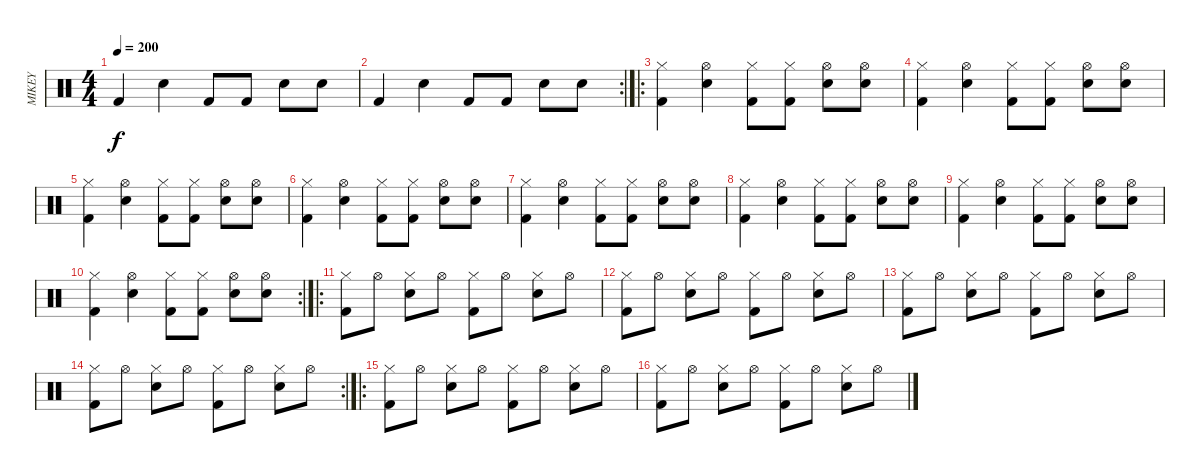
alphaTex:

\track ("MIKEY" "MIKEY") {instrument percussion}
\staff {score}
\articulation defaults
\ts (4 4)
\tempo 200
\clef neutral
\ks c "Kick (hit) 2".4{dy f} "Snare (hit) 2".4 "Kick (hit) 2".8 "Kick (hit) 2".8 "Snare (hit) 2".8 "Snare (hit) 2".8
|
\rc 2 "Kick (hit) 2".4 "Snare (hit) 2".4 "Kick (hit) 2".8 "Kick (hit) 2".8 "Snare (hit) 2".8 "Snare (hit) 2".8
|
\ro
("Hi-Hat (closed)" "Kick (hit) 2").4 ("Hi-Hat (open)" "Snare (hit) 2").4 ("Hi-Hat (closed)" "Kick (hit) 2").8 ("Hi-Hat (closed)" "Kick (hit) 2").8 ("Hi-Hat (open)" "Snare (hit) 2").8 ("Hi-Hat (open)" "Snare (hit) 2").8 |
("Hi-Hat (closed)" "Kick (hit) 2").4 ("Hi-Hat (open)" "Snare (hit) 2").4 ("Hi-Hat (closed)" "Kick (hit) 2").8 ("Hi-Hat (closed)" "Kick (hit) 2").8 ("Hi-Hat (open)" "Snare (hit) 2").8 ("Hi-Hat (open)" "Snare (hit) 2").8 |
("Hi-Hat (closed)" "Kick (hit) 2").4 ("Hi-Hat (open)" "Snare (hit) 2").4 ("Hi-Hat (closed)" "Kick (hit) 2").8 ("Hi-Hat (closed)" "Kick (hit) 2").8 ("Hi-Hat (open)" "Snare (hit) 2").8 ("Hi-Hat (open)" "Snare (hit) 2").8 |
("Hi-Hat (closed)" "Kick (hit) 2").4 ("Hi-Hat (open)" "Snare (hit) 2").4 ("Hi-Hat (closed)" "Kick (hit) 2").8 ("Hi-Hat (closed)" "Kick (hit) 2").8 ("Hi-Hat (open)" "Snare (hit) 2").8 ("Hi-Hat (open)" "Snare (hit) 2").8 |
("Hi-Hat (closed)" "Kick (hit) 2").4 ("Hi-Hat (open)" "Snare (hit) 2").4 ("Hi-Hat (closed)" "Kick (hit) 2").8 ("Hi-Hat (closed)" "Kick (hit) 2").8 ("Hi-Hat (open)" "Snare (hit) 2").8 ("Hi-Hat (open)" "Snare (hit) 2").8 |
("Hi-Hat (closed)" "Kick (hit) 2").4 ("Hi-Hat (open)" "Snare (hit) 2").4 ("Hi-Hat (closed)" "Kick (hit) 2").8 ("Hi-Hat (closed)" "Kick (hit) 2").8 ("Hi-Hat (open)" "Snare (hit) 2").8 ("Hi-Hat (open)" "Snare (hit) 2").8 |
("Hi-Hat (closed)" "Kick (hit) 2").4 ("Hi-Hat (open)" "Snare (hit) 2").4 ("Hi-Hat (closed)" "Kick (hit) 2").8 ("Hi-Hat (closed)" "Kick (hit) 2").8 ("Hi-Hat (open)" "Snare (hit) 2").8 ("Hi-Hat (open)" "Snare (hit) 2").8 |
\rc 2
("Hi-Hat (closed)" "Kick (hit) 2").4 ("Hi-Hat (open)" "Snare (hit) 2").4 ("Hi-Hat (closed)" "Kick (hit) 2").8 ("Hi-Hat (closed)" "Kick (hit) 2").8 ("Hi-Hat (open)" "Snare (hit) 2").8 ("Hi-Hat (open)" "Snare (hit) 2").8 |
\ro
("Hi-Hat (closed)" "Kick (hit) 2").8 "Hi-Hat (open)".8 ("Hi-Hat (closed)" "Snare (hit) 2").8 "Hi-Hat (open)".8 ("Hi-Hat (closed)" "Kick (hit) 2").8 "Hi-Hat (open)".8 ("Hi-Hat (closed)" "Snare (hit) 2").8 "Hi-Hat (open)".8 |
("Hi-Hat (closed)" "Kick (hit) 2").8 "Hi-Hat (open)".8 ("Hi-Hat (closed)" "Snare (hit) 2").8 "Hi-Hat (open)".8 ("Hi-Hat (closed)" "Kick (hit) 2").8 "Hi-Hat (open)".8 ("Hi-Hat (closed)" "Snare (hit) 2").8 "Hi-Hat (open)".8 |
("Hi-Hat (closed)" "Kick (hit) 2").8 "Hi-Hat (open)".8 ("Hi-Hat (closed)" "Snare (hit) 2").8 "Hi-Hat (open)".8 ("Hi-Hat (closed)" "Kick (hit) 2").8 "Hi-Hat (open)".8 ("Hi-Hat (closed)" "Snare (hit) 2").8 "Hi-Hat (open)".8 |
\rc 2
("Hi-Hat (closed)" "Kick (hit) 2").8 "Hi-Hat (open)".8 ("Hi-Hat (closed)" "Snare (hit) 2").8 "Hi-Hat (open)".8 ("Hi-Hat (closed)" "Kick (hit) 2").8 "Hi-Hat (open)".8 ("Hi-Hat (closed)" "Snare (hit) 2").8 "Hi-Hat (open)".8 |
\ro
("Hi-Hat (closed)" "Kick (hit) 2").8 "Hi-Hat (open)".8 ("Hi-Hat (closed)" "Snare (hit) 2").8 "Hi-Hat (open)".8 ("Hi-Hat (closed)" "Kick (hit) 2").8 "Hi-Hat (open)".8 ("Hi-Hat (closed)" "Snare (hit) 2").8 "Hi-Hat (open)".8 |
("Hi-Hat (closed)" "Kick (hit) 2").8 "Hi-Hat (open)".8 ("Hi-Hat (closed)" "Snare (hit) 2").8 "Hi-Hat (open)".8 ("Hi-Hat (closed)" "Kick (hit) 2").8 "Hi-Hat (open)".8 ("Hi-Hat (closed)" "Snare (hit) 2").8 "Hi-Hat (open)".8
